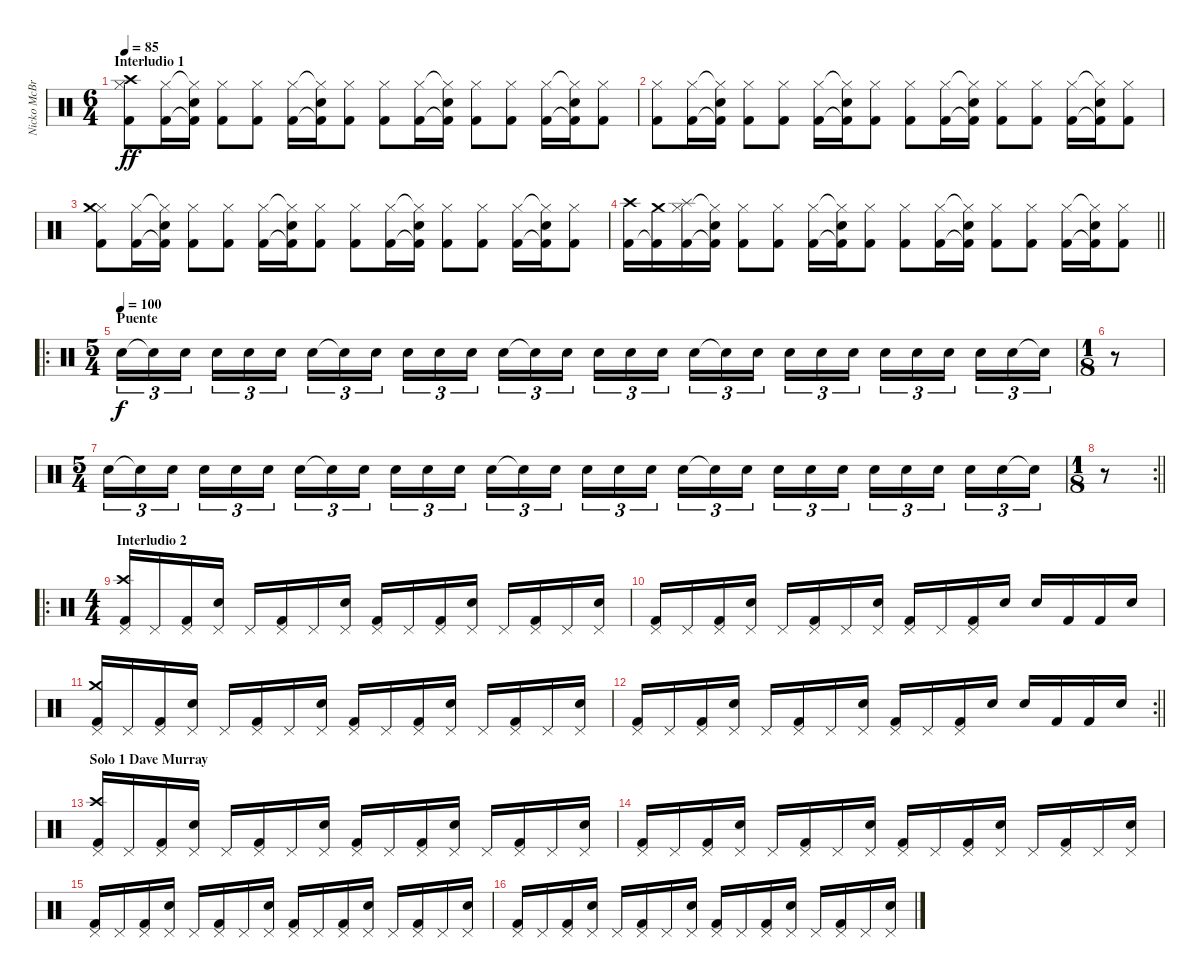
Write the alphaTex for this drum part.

\track ("Nicko McBrain" "Nicko McBr") {instrument percussion}
\staff {score}
\articulation defaults
\ts (6 4)
\section ("" "Interludio 1")
\tempo 85
\clef neutral
\ks c
("Kick (hit) 2" "Hi-Hat (closed)" "Crash high (hit)").8{dy ff} ("Kick (hit) 2" "Hi-Hat (closed)").16 ("Kick (hit) 2"{t} "Hi-Hat (closed)"{t} "Snare (hit) 2").16 ("Kick (hit) 2" "Hi-Hat (closed)").8 ("Kick (hit) 2" "Hi-Hat (closed)").8 ("Kick (hit) 2" "Hi-Hat (closed)").16 ("Kick (hit) 2"{t} "Hi-Hat (closed)"{t} "Snare (hit) 2").16 ("Kick (hit) 2" "Hi-Hat (closed)").8 ("Kick (hit) 2" "Hi-Hat (closed)").8 ("Kick (hit) 2" "Hi-Hat (closed)").16 ("Kick (hit) 2"{t} "Hi-Hat (closed)"{t} "Snare (hit) 2").16 ("Kick (hit) 2" "Hi-Hat (closed)").8 ("Kick (hit) 2" "Hi-Hat (closed)").8 ("Kick (hit) 2" "Hi-Hat (closed)").16 ("Kick (hit) 2"{t} "Hi-Hat (closed)"{t} "Snare (hit) 2").16 ("Kick (hit) 2" "Hi-Hat (closed)").8 |
("Kick (hit) 2" "Hi-Hat (closed)").8 ("Kick (hit) 2" "Hi-Hat (closed)").16 ("Kick (hit) 2"{t} "Hi-Hat (closed)"{t} "Snare (hit) 2").16 ("Kick (hit) 2" "Hi-Hat (closed)").8 ("Kick (hit) 2" "Hi-Hat (closed)").8 ("Kick (hit) 2" "Hi-Hat (closed)").16 ("Kick (hit) 2"{t} "Hi-Hat (closed)"{t} "Snare (hit) 2").16 ("Kick (hit) 2" "Hi-Hat (closed)").8 ("Kick (hit) 2" "Hi-Hat (closed)").8 ("Kick (hit) 2" "Hi-Hat (closed)").16 ("Kick (hit) 2"{t} "Hi-Hat (closed)"{t} "Snare (hit) 2").16 ("Kick (hit) 2" "Hi-Hat (closed)").8 ("Kick (hit) 2" "Hi-Hat (closed)").8 ("Kick (hit) 2" "Hi-Hat (closed)").16 ("Kick (hit) 2"{t} "Hi-Hat (closed)"{t} "Snare (hit) 2").16 ("Kick (hit) 2" "Hi-Hat (closed)").8 |
("Kick (hit) 2" "Hi-Hat (closed)" "Crash medium (hit)").8 ("Kick (hit) 2" "Hi-Hat (closed)").16 ("Kick (hit) 2"{t} "Hi-Hat (closed)"{t} "Snare (hit) 2").16 ("Kick (hit) 2" "Hi-Hat (closed)").8 ("Kick (hit) 2" "Hi-Hat (closed)").8 ("Kick (hit) 2" "Hi-Hat (closed)").16 ("Kick (hit) 2"{t} "Hi-Hat (closed)"{t} "Snare (hit) 2").16 ("Kick (hit) 2" "Hi-Hat (closed)").8 ("Kick (hit) 2" "Hi-Hat (closed)").8 ("Kick (hit) 2" "Hi-Hat (closed)").16 ("Kick (hit) 2"{t} "Hi-Hat (closed)"{t} "Snare (hit) 2").16 ("Kick (hit) 2" "Hi-Hat (closed)").8 ("Kick (hit) 2" "Hi-Hat (closed)").8 ("Kick (hit) 2" "Hi-Hat (closed)").16 ("Kick (hit) 2"{t} "Hi-Hat (closed)"{t} "Snare (hit) 2").16 ("Kick (hit) 2" "Hi-Hat (closed)").8 |
\barLineRight lightlight
("Kick (hit) 2" "Crash high (hit)").16 ("Kick (hit) 2"{t} "Crash medium (hit)").16 ("Kick (hit) 2" "Hi-Hat (closed)" "Splash (hit)").16 ("Kick (hit) 2"{t} "Hi-Hat (closed)"{t} "Snare (hit) 2").16 ("Kick (hit) 2" "Hi-Hat (closed)").8 ("Kick (hit) 2" "Hi-Hat (closed)").8 ("Kick (hit) 2" "Hi-Hat (closed)").16 ("Kick (hit) 2"{t} "Hi-Hat (closed)"{t} "Snare (hit) 2").16 ("Kick (hit) 2" "Hi-Hat (closed)").8 ("Kick (hit) 2" "Hi-Hat (closed)").8 ("Kick (hit) 2" "Hi-Hat (closed)").16 ("Kick (hit) 2"{t} "Hi-Hat (closed)"{t} "Snare (hit) 2").16 ("Kick (hit) 2" "Hi-Hat (closed)").8 ("Kick (hit) 2" "Hi-Hat (closed)").8 ("Kick (hit) 2" "Hi-Hat (closed)").16 ("Kick (hit) 2"{t} "Hi-Hat (closed)"{t} "Snare (hit) 2").16 ("Kick (hit) 2" "Hi-Hat (closed)").8 |
\ro
\ts (5 4)
\section ("" "Puente")
\tempo (100)
"Snare (hit) 2".16{tu (3 2) dy f} "Snare (hit)"{t}.16{tu (3 2)} "Snare (hit) 2".16{tu (3 2) beam splitsecondary} "Snare (hit) 2".16{tu (3 2)} "Snare (hit) 2".16{tu (3 2)} "Snare (hit) 2".16{tu (3 2)} "Snare (hit) 2".16{tu (3 2)} "Snare (hit)"{t}.16{tu (3 2)} "Snare (hit) 2".16{tu (3 2) beam splitsecondary} "Snare (hit) 2".16{tu (3 2)} "Snare (hit) 2".16{tu (3 2)} "Snare (hit) 2".16{tu (3 2)} "Snare (hit) 2".16{tu (3 2)} "Snare (hit)"{t}.16{tu (3 2)} "Snare (hit) 2".16{tu (3 2) beam splitsecondary} "Snare (hit) 2".16{tu (3 2)} "Snare (hit) 2".16{tu (3 2)} "Snare (hit) 2".16{tu (3 2)} "Snare (hit) 2".16{tu (3 2)} "Snare (hit) 2"{t}.16{tu (3 2)} "Snare (hit) 2".16{tu (3 2) beam splitsecondary} "Snare (hit) 2".16{tu (3 2)} "Snare (hit) 2".16{tu (3 2)} "Snare (hit) 2".16{tu (3 2)} "Snare (hit) 2".16{tu (3 2)} "Snare (hit) 2".16{tu (3 2)} "Snare (hit) 2".16{tu (3 2) beam splitsecondary} "Snare (hit) 2".16{tu (3 2)} "Snare (hit) 2".16{tu (3 2)} "Snare (hit) 2"{t}.16{tu (3 2)} |
\ts (1 8)
r.8 |
\ts (5 4)
"Snare (hit) 2".16{tu (3 2)} "Snare (hit)"{t}.16{tu (3 2)} "Snare (hit) 2".16{tu (3 2) beam splitsecondary} "Snare (hit) 2".16{tu (3 2)} "Snare (hit) 2".16{tu (3 2)} "Snare (hit) 2".16{tu (3 2)} "Snare (hit) 2".16{tu (3 2)} "Snare (hit)"{t}.16{tu (3 2)} "Snare (hit) 2".16{tu (3 2) beam splitsecondary} "Snare (hit) 2".16{tu (3 2)} "Snare (hit) 2".16{tu (3 2)} "Snare (hit) 2".16{tu (3 2)} "Snare (hit) 2".16{tu (3 2)} "Snare (hit)"{t}.16{tu (3 2)} "Snare (hit) 2".16{tu (3 2) beam splitsecondary} "Snare (hit) 2".16{tu (3 2)} "Snare (hit) 2".16{tu (3 2)} "Snare (hit) 2".16{tu (3 2)} "Snare (hit) 2".16{tu (3 2)} "Snare (hit) 2"{t}.16{tu (3 2)} "Snare (hit) 2".16{tu (3 2) beam splitsecondary} "Snare (hit) 2".16{tu (3 2)} "Snare (hit) 2".16{tu (3 2)} "Snare (hit) 2".16{tu (3 2)} "Snare (hit) 2".16{tu (3 2)} "Snare (hit) 2".16{tu (3 2)} "Snare (hit) 2".16{tu (3 2) beam splitsecondary} "Snare (hit) 2".16{tu (3 2)} "Snare (hit) 2".16{tu (3 2)} "Snare (hit) 2"{t}.16{tu (3 2)} |
\rc 2
\ts (1 8)
\barLineRight lightlight
r.8 |
\ro
\ts (4 4)
\section ("" "Interludio 2")
("Kick (hit) 2" "Pedal Hi-Hat (hit)" "Crash high (hit)").16 "Pedal Hi-Hat (hit)".16 ("Kick (hit) 2" "Pedal Hi-Hat (hit)").16 ("Snare (hit) 2" "Pedal Hi-Hat (hit)").16 "Pedal Hi-Hat (hit)".16 ("Kick (hit) 2" "Pedal Hi-Hat (hit)").16 "Pedal Hi-Hat (hit)".16 ("Snare (hit) 2" "Pedal Hi-Hat (hit)").16 ("Kick (hit) 2" "Pedal Hi-Hat (hit)").16 "Pedal Hi-Hat (hit)".16 ("Kick (hit) 2" "Pedal Hi-Hat (hit)").16 ("Snare (hit) 2" "Pedal Hi-Hat (hit)").16 "Pedal Hi-Hat (hit)".16 ("Kick (hit) 2" "Pedal Hi-Hat (hit)").16 "Pedal Hi-Hat (hit)".16 ("Snare (hit) 2" "Pedal Hi-Hat (hit)").16 |
("Kick (hit) 2" "Pedal Hi-Hat (hit)").16 "Pedal Hi-Hat (hit)".16 ("Kick (hit) 2" "Pedal Hi-Hat (hit)").16 ("Snare (hit) 2" "Pedal Hi-Hat (hit)").16 "Pedal Hi-Hat (hit)".16 ("Kick (hit) 2" "Pedal Hi-Hat (hit)").16 "Pedal Hi-Hat (hit)".16 ("Snare (hit) 2" "Pedal Hi-Hat (hit)").16 ("Kick (hit) 2" "Pedal Hi-Hat (hit)").16 "Pedal Hi-Hat (hit)".16 ("Kick (hit) 2" "Pedal Hi-Hat (hit)").16 "Snare (hit) 2".16 "Snare (hit) 2".16 "Kick (hit) 2".16 "Kick (hit) 2".16 "Snare (hit) 2".16 |
("Kick (hit) 2" "Pedal Hi-Hat (hit)" "Crash medium (hit)").16 "Pedal Hi-Hat (hit)".16 ("Kick (hit) 2" "Pedal Hi-Hat (hit)").16 ("Snare (hit) 2" "Pedal Hi-Hat (hit)").16 "Pedal Hi-Hat (hit)".16 ("Kick (hit) 2" "Pedal Hi-Hat (hit)").16 "Pedal Hi-Hat (hit)".16 ("Snare (hit) 2" "Pedal Hi-Hat (hit)").16 ("Kick (hit) 2" "Pedal Hi-Hat (hit)").16 "Pedal Hi-Hat (hit)".16 ("Kick (hit) 2" "Pedal Hi-Hat (hit)").16 ("Snare (hit) 2" "Pedal Hi-Hat (hit)").16 "Pedal Hi-Hat (hit)".16 ("Kick (hit) 2" "Pedal Hi-Hat (hit)").16 "Pedal Hi-Hat (hit)".16 ("Snare (hit) 2" "Pedal Hi-Hat (hit)").16 |
\rc 2
\barLineRight lightlight
("Kick (hit) 2" "Pedal Hi-Hat (hit)").16 "Pedal Hi-Hat (hit)".16 ("Kick (hit) 2" "Pedal Hi-Hat (hit)").16 ("Snare (hit) 2" "Pedal Hi-Hat (hit)").16 "Pedal Hi-Hat (hit)".16 ("Kick (hit) 2" "Pedal Hi-Hat (hit)").16 "Pedal Hi-Hat (hit)".16 ("Snare (hit) 2" "Pedal Hi-Hat (hit)").16 ("Kick (hit) 2" "Pedal Hi-Hat (hit)").16 "Pedal Hi-Hat (hit)".16 ("Kick (hit) 2" "Pedal Hi-Hat (hit)").16 "Snare (hit) 2".16 "Snare (hit) 2".16 "Kick (hit) 2".16 "Kick (hit) 2".16 "Snare (hit) 2".16 |
\section ("" "Solo 1 Dave Murray")
("Kick (hit) 2" "Pedal Hi-Hat (hit)" "Crash high (hit)").16 "Pedal Hi-Hat (hit)".16 ("Kick (hit) 2" "Pedal Hi-Hat (hit)").16 ("Snare (hit) 2" "Pedal Hi-Hat (hit)").16 "Pedal Hi-Hat (hit)".16 ("Kick (hit) 2" "Pedal Hi-Hat (hit)").16 "Pedal Hi-Hat (hit)".16 ("Snare (hit) 2" "Pedal Hi-Hat (hit)").16 ("Kick (hit) 2" "Pedal Hi-Hat (hit)").16 "Pedal Hi-Hat (hit)".16 ("Kick (hit) 2" "Pedal Hi-Hat (hit)").16 ("Snare (hit) 2" "Pedal Hi-Hat (hit)").16 "Pedal Hi-Hat (hit)".16 ("Kick (hit) 2" "Pedal Hi-Hat (hit)").16 "Pedal Hi-Hat (hit)".16 ("Snare (hit) 2" "Pedal Hi-Hat (hit)").16 |
("Kick (hit) 2" "Pedal Hi-Hat (hit)").16 "Pedal Hi-Hat (hit)".16 ("Kick (hit) 2" "Pedal Hi-Hat (hit)").16 ("Snare (hit) 2" "Pedal Hi-Hat (hit)").16 "Pedal Hi-Hat (hit)".16 ("Kick (hit) 2" "Pedal Hi-Hat (hit)").16 "Pedal Hi-Hat (hit)".16 ("Snare (hit) 2" "Pedal Hi-Hat (hit)").16 ("Kick (hit) 2" "Pedal Hi-Hat (hit)").16 "Pedal Hi-Hat (hit)".16 ("Kick (hit) 2" "Pedal Hi-Hat (hit)").16 ("Snare (hit) 2" "Pedal Hi-Hat (hit)").16 "Pedal Hi-Hat (hit)".16 ("Kick (hit) 2" "Pedal Hi-Hat (hit)").16 "Pedal Hi-Hat (hit)".16 ("Snare (hit) 2" "Pedal Hi-Hat (hit)").16 |
("Kick (hit) 2" "Pedal Hi-Hat (hit)").16 "Pedal Hi-Hat (hit)".16 ("Kick (hit) 2" "Pedal Hi-Hat (hit)").16 ("Snare (hit) 2" "Pedal Hi-Hat (hit)").16 "Pedal Hi-Hat (hit)".16 ("Kick (hit) 2" "Pedal Hi-Hat (hit)").16 "Pedal Hi-Hat (hit)".16 ("Snare (hit) 2" "Pedal Hi-Hat (hit)").16 ("Kick (hit) 2" "Pedal Hi-Hat (hit)").16 "Pedal Hi-Hat (hit)".16 ("Kick (hit) 2" "Pedal Hi-Hat (hit)").16 ("Snare (hit) 2" "Pedal Hi-Hat (hit)").16 "Pedal Hi-Hat (hit)".16 ("Kick (hit) 2" "Pedal Hi-Hat (hit)").16 "Pedal Hi-Hat (hit)".16 ("Snare (hit) 2" "Pedal Hi-Hat (hit)").16 |
("Kick (hit) 2" "Pedal Hi-Hat (hit)").16 "Pedal Hi-Hat (hit)".16 ("Kick (hit) 2" "Pedal Hi-Hat (hit)").16 ("Snare (hit) 2" "Pedal Hi-Hat (hit)").16 "Pedal Hi-Hat (hit)".16 ("Kick (hit) 2" "Pedal Hi-Hat (hit)").16 "Pedal Hi-Hat (hit)".16 ("Snare (hit) 2" "Pedal Hi-Hat (hit)").16 ("Kick (hit) 2" "Pedal Hi-Hat (hit)").16 "Pedal Hi-Hat (hit)".16 ("Kick (hit) 2" "Pedal Hi-Hat (hit)").16 ("Snare (hit) 2" "Pedal Hi-Hat (hit)").16 "Pedal Hi-Hat (hit)".16 ("Kick (hit) 2" "Pedal Hi-Hat (hit)").16 "Pedal Hi-Hat (hit)".16 ("Snare (hit) 2" "Pedal Hi-Hat (hit)").16
